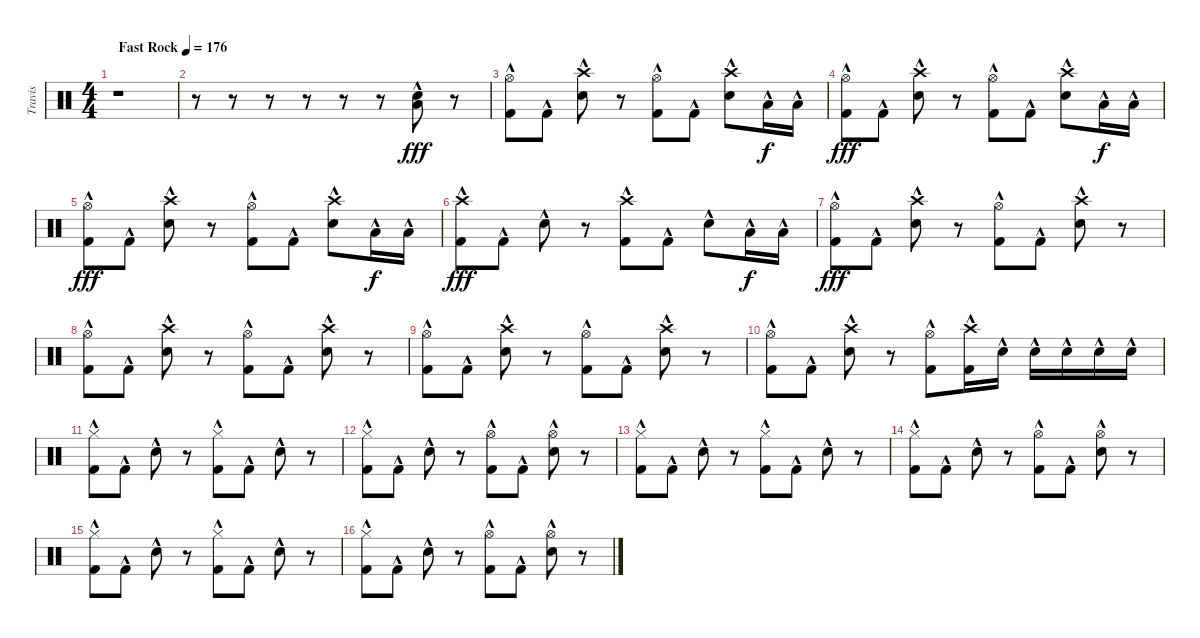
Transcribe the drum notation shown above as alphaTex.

\track ("Travis" "Travis") {instrument percussion}
\staff {score}
\articulation defaults
\ts (4 4)
\tempo (176 "Fast Rock")
\clef neutral
\ks c
r.1{dy fff} |
r.8 r.8 r.8 r.8 r.8 r.8 ("Low Tom (hit)"{hac} "Snare (hit) 2"{hac}).8 r.8 |
("Kick (hit) 2"{hac} "Hi-Hat (open)"{hac}).8 "Kick (hit) 2"{hac}.8 ("Snare (hit) 2"{hac} "Crash high (hit)"{hac}).8 r.8 ("Kick (hit) 2"{hac} "Hi-Hat (open)"{hac}).8 "Kick (hit) 2"{hac}.8 ("Snare (hit) 2"{hac} "Crash high (hit)"{hac}).8 "Low Tom (hit)"{hac}.16{dy f} "Low Tom (hit)"{hac}.16 |
("Kick (hit) 2"{hac} "Hi-Hat (open)"{hac}).8{dy fff} "Kick (hit) 2"{hac}.8 ("Snare (hit) 2"{hac} "Crash high (hit)"{hac}).8 r.8 ("Kick (hit) 2"{hac} "Hi-Hat (open)"{hac}).8 "Kick (hit) 2"{hac}.8 ("Snare (hit) 2"{hac} "Crash high (hit)"{hac}).8 "Low Tom (hit)"{hac}.16{dy f} "Low Tom (hit)"{hac}.16 |
("Kick (hit) 2"{hac} "Hi-Hat (open)"{hac}).8{dy fff} "Kick (hit) 2"{hac}.8 ("Snare (hit) 2"{hac} "Crash high (hit)"{hac}).8 r.8 ("Kick (hit) 2"{hac} "Hi-Hat (open)"{hac}).8 "Kick (hit) 2"{hac}.8 ("Snare (hit) 2"{hac} "Crash high (hit)"{hac}).8 "Low Tom (hit)"{hac}.16{dy f} "Low Tom (hit)"{hac}.16 |
("Kick (hit) 2"{hac} "Crash high (hit)"{hac}).8{dy fff} "Kick (hit) 2"{hac}.8 "Snare (hit) 2"{hac}.8 r.8 ("Kick (hit) 2"{hac} "Crash high (hit)"{hac}).8 "Kick (hit) 2"{hac}.8 "Snare (hit) 2"{hac}.8 "Low Tom (hit)"{hac}.16{dy f} "Low Tom (hit)"{hac}.16 |
("Kick (hit) 2"{hac} "Hi-Hat (open)"{hac}).8{dy fff} "Kick (hit) 2"{hac}.8 ("Snare (hit) 2"{hac} "Crash high (hit)"{hac}).8 r.8 ("Kick (hit) 2"{hac} "Hi-Hat (open)"{hac}).8 "Kick (hit) 2"{hac}.8 ("Snare (hit) 2"{hac} "Crash high (hit)"{hac}).8 r.8 |
("Kick (hit) 2"{hac} "Hi-Hat (open)"{hac}).8 "Kick (hit) 2"{hac}.8 ("Snare (hit) 2"{hac} "Crash high (hit)"{hac}).8 r.8 ("Kick (hit) 2"{hac} "Hi-Hat (open)"{hac}).8 "Kick (hit) 2"{hac}.8 ("Snare (hit) 2"{hac} "Crash high (hit)"{hac}).8 r.8 |
("Kick (hit) 2"{hac} "Hi-Hat (open)"{hac}).8 "Kick (hit) 2"{hac}.8 ("Snare (hit) 2"{hac} "Crash high (hit)"{hac}).8 r.8 ("Kick (hit) 2"{hac} "Hi-Hat (open)"{hac}).8 "Kick (hit) 2"{hac}.8 ("Snare (hit) 2"{hac} "Crash high (hit)"{hac}).8 r.8 |
("Kick (hit) 2"{hac} "Hi-Hat (open)"{hac}).8 "Kick (hit) 2"{hac}.8 ("Snare (hit) 2"{hac} "Crash high (hit)"{hac}).8 r.8 ("Kick (hit) 2"{hac} "Hi-Hat (open)"{hac}).8 ("Kick (hit) 2"{hac} "Crash high (hit)"{hac}).16 "Snare (hit) 2"{hac}.16 "Snare (hit) 2"{hac}.16 "Snare (hit) 2"{hac}.16 "Snare (hit) 2"{hac}.16 "Snare (hit) 2"{hac}.16 |
("Kick (hit) 2"{hac} "Hi-Hat (closed)"{hac}).8 "Kick (hit) 2"{hac}.8 "Snare (hit) 2"{hac}.8 r.8 ("Kick (hit) 2"{hac} "Hi-Hat (closed)"{hac}).8 "Kick (hit) 2"{hac}.8 "Snare (hit) 2"{hac}.8 r.8 |
("Kick (hit) 2"{hac} "Hi-Hat (closed)"{hac}).8 "Kick (hit) 2"{hac}.8 "Snare (hit) 2"{hac}.8 r.8 ("Kick (hit) 2"{hac} "Hi-Hat (open)"{hac}).8 "Kick (hit) 2"{hac}.8 ("Snare (hit) 2"{hac} "Hi-Hat (open)"{hac}).8 r.8 |
("Kick (hit) 2"{hac} "Hi-Hat (closed)"{hac}).8 "Kick (hit) 2"{hac}.8 "Snare (hit) 2"{hac}.8 r.8 ("Kick (hit) 2"{hac} "Hi-Hat (closed)"{hac}).8 "Kick (hit) 2"{hac}.8 "Snare (hit) 2"{hac}.8 r.8 |
("Kick (hit) 2"{hac} "Hi-Hat (closed)"{hac}).8 "Kick (hit) 2"{hac}.8 "Snare (hit) 2"{hac}.8 r.8 ("Kick (hit) 2"{hac} "Hi-Hat (open)"{hac}).8 "Kick (hit) 2"{hac}.8 ("Snare (hit) 2"{hac} "Hi-Hat (open)"{hac}).8 r.8 |
("Kick (hit) 2"{hac} "Hi-Hat (closed)"{hac}).8 "Kick (hit) 2"{hac}.8 "Snare (hit) 2"{hac}.8 r.8 ("Kick (hit) 2"{hac} "Hi-Hat (closed)"{hac}).8 "Kick (hit) 2"{hac}.8 "Snare (hit) 2"{hac}.8 r.8 |
("Kick (hit) 2"{hac} "Hi-Hat (closed)"{hac}).8 "Kick (hit) 2"{hac}.8 "Snare (hit) 2"{hac}.8 r.8 ("Kick (hit) 2"{hac} "Hi-Hat (open)"{hac}).8 "Kick (hit) 2"{hac}.8 ("Snare (hit) 2"{hac} "Hi-Hat (open)"{hac}).8 r.8
